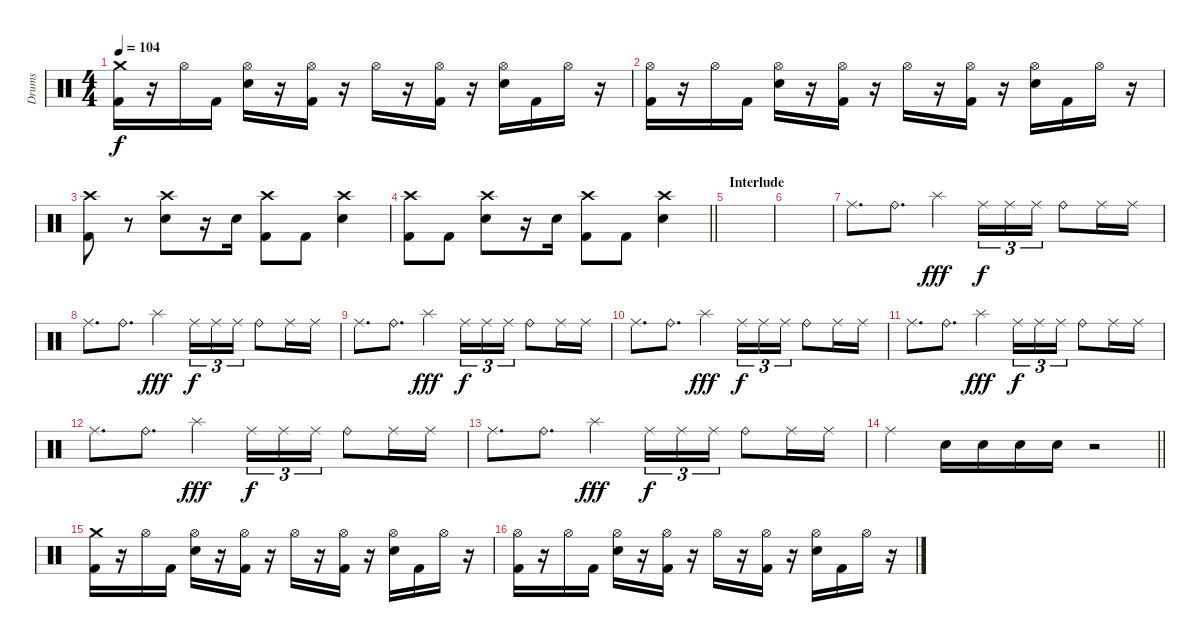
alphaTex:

\track ("Drums" "Drums") {instrument percussion}
\staff {score}
\articulation defaults
\ts (4 4)
\tempo 104
\clef neutral
\ks c
("Crash medium (hit)" "Kick (hit) 2").16{dy f} r.16 "Hi-Hat (open)".16 "Kick (hit) 2".16 ("Hi-Hat (open)" "Snare (hit) 2").16 r.16 ("Hi-Hat (open)" "Kick (hit) 2").16 r.16 "Hi-Hat (open)".16 r.16 ("Hi-Hat (open)" "Kick (hit) 2").16 r.16 ("Hi-Hat (open)" "Snare (hit) 2").16 "Kick (hit) 2".16 "Hi-Hat (open)".16 r.16 |
("Hi-Hat (open)" "Kick (hit) 2").16 r.16 "Hi-Hat (open)".16 "Kick (hit) 2".16 ("Hi-Hat (open)" "Snare (hit) 2").16 r.16 ("Hi-Hat (open)" "Kick (hit) 2").16 r.16 "Hi-Hat (open)".16 r.16 ("Hi-Hat (open)" "Kick (hit) 2").16 r.16 ("Hi-Hat (open)" "Snare (hit) 2").16 "Kick (hit) 2".16 "Hi-Hat (open)".16 r.16 |
("Crash high (hit)" "Kick (hit) 2").8 r.8 ("Crash high (hit)" "Snare (hit) 2").8 r.16 "Snare (hit) 2".16 ("Crash high (hit)" "Kick (hit) 2").8 "Kick (hit) 2".8 ("Crash high (hit)" "Snare (hit) 2").4 |
\barLineRight lightlight
("Crash high (hit)" "Kick (hit) 2").8 "Kick (hit) 2".8 ("Crash high (hit)" "Snare (hit) 2").8 r.16 "Snare (hit) 2".16 ("Crash high (hit)" "Kick (hit) 2").8 "Kick (hit) 2".8 ("Crash high (hit)" "Snare (hit) 2").4 |
\section ("" "Interlude")
|
|
"Ride (middle)".8{d} "Ride (bell)".8{d} "Splash (hit)".4{dy fff} "Ride (middle)".16{tu (3 2) dy f} "Ride (middle)".16{tu (3 2)} "Ride (middle)".16{tu (3 2)} "Ride (bell)".8 "Ride (middle)".16 "Ride (middle)".16 |
"Ride (middle)".8{d} "Ride (bell)".8{d} "Splash (hit)".4{dy fff} "Ride (middle)".16{tu (3 2) dy f} "Ride (middle)".16{tu (3 2)} "Ride (middle)".16{tu (3 2)} "Ride (bell)".8 "Ride (middle)".16 "Ride (middle)".16 |
"Ride (middle)".8{d} "Ride (bell)".8{d} "Splash (hit)".4{dy fff} "Ride (middle)".16{tu (3 2) dy f} "Ride (middle)".16{tu (3 2)} "Ride (middle)".16{tu (3 2)} "Ride (bell)".8 "Ride (middle)".16 "Ride (middle)".16 |
"Ride (middle)".8{d} "Ride (bell)".8{d} "Splash (hit)".4{dy fff} "Ride (middle)".16{tu (3 2) dy f} "Ride (middle)".16{tu (3 2)} "Ride (middle)".16{tu (3 2)} "Ride (bell)".8 "Ride (middle)".16 "Ride (middle)".16 |
"Ride (middle)".8{d} "Ride (bell)".8{d} "Splash (hit)".4{dy fff} "Ride (middle)".16{tu (3 2) dy f} "Ride (middle)".16{tu (3 2)} "Ride (middle)".16{tu (3 2)} "Ride (bell)".8 "Ride (middle)".16 "Ride (middle)".16 |
"Ride (middle)".8{d} "Ride (bell)".8{d} "Splash (hit)".4{dy fff} "Ride (middle)".16{tu (3 2) dy f} "Ride (middle)".16{tu (3 2)} "Ride (middle)".16{tu (3 2)} "Ride (bell)".8 "Ride (middle)".16 "Ride (middle)".16 |
"Ride (middle)".8{d} "Ride (bell)".8{d} "Splash (hit)".4{dy fff} "Ride (middle)".16{tu (3 2) dy f} "Ride (middle)".16{tu (3 2)} "Ride (middle)".16{tu (3 2)} "Ride (bell)".8 "Ride (middle)".16 "Ride (middle)".16 |
\barLineRight lightlight "Ride (middle)".4 "Snare (hit) 2".16 "Snare (hit) 2".16 "Snare (hit) 2".16 "Snare (hit) 2".16
r.2 |
("Crash medium (hit)" "Kick (hit) 2").16 r.16 "Hi-Hat (open)".16 "Kick (hit) 2".16 ("Hi-Hat (open)" "Snare (hit) 2").16 r.16 ("Hi-Hat (open)" "Kick (hit) 2").16 r.16 "Hi-Hat (open)".16 r.16 ("Hi-Hat (open)" "Kick (hit) 2").16 r.16 ("Hi-Hat (open)" "Snare (hit) 2").16 "Kick (hit) 2".16 "Hi-Hat (open)".16 r.16 |
("Hi-Hat (open)" "Kick (hit) 2").16 r.16 "Hi-Hat (open)".16 "Kick (hit) 2".16 ("Hi-Hat (open)" "Snare (hit) 2").16 r.16 ("Hi-Hat (open)" "Kick (hit) 2").16 r.16 "Hi-Hat (open)".16 r.16 ("Hi-Hat (open)" "Kick (hit) 2").16 r.16 ("Hi-Hat (open)" "Snare (hit) 2").16 "Kick (hit) 2".16 "Hi-Hat (open)".16 r.16
